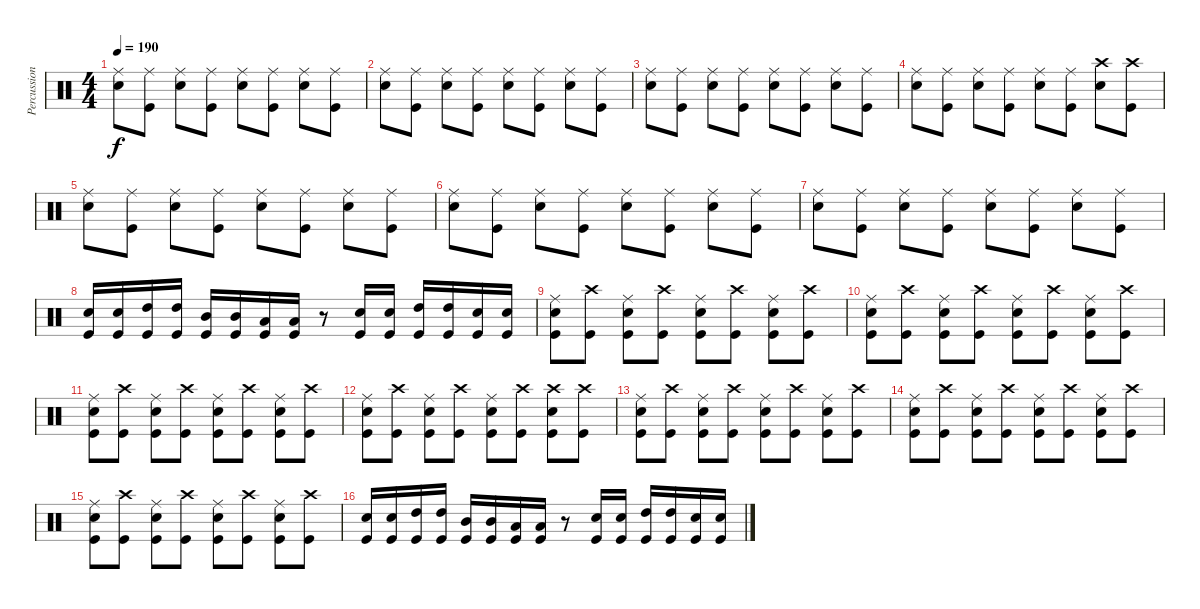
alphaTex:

\track ("Percussioni" "Percussion") {instrument percussion}
\staff {score}
\articulation defaults
\ts (4 4)
\tempo 190
\clef neutral
\ks c
("Ride (middle)" "Electric Snare (hit)").8{dy f} ("Ride (middle)" "Kick (hit)").8 ("Ride (middle)" "Electric Snare (hit)").8 ("Ride (middle)" "Kick (hit)").8 ("Ride (middle)" "Electric Snare (hit)").8 ("Ride (middle)" "Kick (hit)").8 ("Ride (middle)" "Electric Snare (hit)").8 ("Ride (middle)" "Kick (hit)").8 |
("Ride (middle)" "Electric Snare (hit)").8 ("Ride (middle)" "Kick (hit)").8 ("Ride (middle)" "Electric Snare (hit)").8 ("Ride (middle)" "Kick (hit)").8 ("Ride (middle)" "Electric Snare (hit)").8 ("Ride (middle)" "Kick (hit)").8 ("Ride (middle)" "Electric Snare (hit)").8 ("Ride (middle)" "Kick (hit)").8 |
("Ride (middle)" "Electric Snare (hit)").8 ("Ride (middle)" "Kick (hit)").8 ("Ride (middle)" "Electric Snare (hit)").8 ("Ride (middle)" "Kick (hit)").8 ("Ride (middle)" "Electric Snare (hit)").8 ("Ride (middle)" "Kick (hit)").8 ("Ride (middle)" "Electric Snare (hit)").8 ("Ride (middle)" "Kick (hit)").8 |
("Ride (middle)" "Electric Snare (hit)").8 ("Ride (middle)" "Kick (hit)").8 ("Ride (middle)" "Electric Snare (hit)").8 ("Ride (middle)" "Kick (hit)").8 ("Ride (middle)" "Electric Snare (hit)").8 ("Ride (middle)" "Kick (hit)").8 ("Crash high (hit)" "Electric Snare (hit)").8 ("Crash high (hit)" "Kick (hit)").8 |
("Ride (middle)" "Electric Snare (hit)").8 ("Ride (middle)" "Kick (hit)").8 ("Ride (middle)" "Electric Snare (hit)").8 ("Ride (middle)" "Kick (hit)").8 ("Ride (middle)" "Electric Snare (hit)").8 ("Ride (middle)" "Kick (hit)").8 ("Ride (middle)" "Electric Snare (hit)").8 ("Ride (middle)" "Kick (hit)").8 |
("Ride (middle)" "Electric Snare (hit)").8 ("Ride (middle)" "Kick (hit)").8 ("Ride (middle)" "Electric Snare (hit)").8 ("Ride (middle)" "Kick (hit)").8 ("Ride (middle)" "Electric Snare (hit)").8 ("Ride (middle)" "Kick (hit)").8 ("Ride (middle)" "Electric Snare (hit)").8 ("Ride (middle)" "Kick (hit)").8 |
("Ride (middle)" "Electric Snare (hit)").8 ("Ride (middle)" "Kick (hit)").8 ("Ride (middle)" "Electric Snare (hit)").8 ("Ride (middle)" "Kick (hit)").8 ("Ride (middle)" "Electric Snare (hit)").8 ("Ride (middle)" "Kick (hit)").8 ("Ride (middle)" "Electric Snare (hit)").8 ("Ride (middle)" "Kick (hit)").8 |
("Electric Snare (hit)" "Kick (hit)").16 ("Electric Snare (hit)" "Kick (hit)").16 ("High Tom (hit)" "Kick (hit)").16 ("High Tom (hit)" "Kick (hit)").16 ("Mid Tom (hit)" "Kick (hit)").16 ("Mid Tom (hit)" "Kick (hit)").16 ("Low Tom (hit)" "Kick (hit)").16 ("Low Tom (hit)" "Kick (hit)").16 r.8 ("Electric Snare (hit)" "Kick (hit)").16 ("Electric Snare (hit)" "Kick (hit)").16 ("High Tom (hit)" "Kick (hit)").16 ("High Tom (hit)" "Kick (hit)").16 ("Snare (hit) 2" "Kick (hit)").16 ("Snare (hit) 2" "Kick (hit)").16 |
("Ride (middle)" "Electric Snare (hit)" "Kick (hit)").8 ("Crash high (hit)" "Kick (hit)").8 ("Ride (middle)" "Electric Snare (hit)" "Kick (hit)").8 ("Crash high (hit)" "Kick (hit)").8 ("Ride (middle)" "Electric Snare (hit)" "Kick (hit)").8 ("Crash high (hit)" "Kick (hit)").8 ("Ride (middle)" "Electric Snare (hit)" "Kick (hit)").8 ("Crash high (hit)" "Kick (hit)").8 |
("Ride (middle)" "Electric Snare (hit)" "Kick (hit)").8 ("Crash high (hit)" "Kick (hit)").8 ("Ride (middle)" "Electric Snare (hit)" "Kick (hit)").8 ("Crash high (hit)" "Kick (hit)").8 ("Ride (middle)" "Electric Snare (hit)" "Kick (hit)").8 ("Crash high (hit)" "Kick (hit)").8 ("Ride (middle)" "Electric Snare (hit)" "Kick (hit)").8 ("Crash high (hit)" "Kick (hit)").8 |
("Ride (middle)" "Electric Snare (hit)" "Kick (hit)").8 ("Crash high (hit)" "Kick (hit)").8 ("Ride (middle)" "Electric Snare (hit)" "Kick (hit)").8 ("Crash high (hit)" "Kick (hit)").8 ("Ride (middle)" "Electric Snare (hit)" "Kick (hit)").8 ("Crash high (hit)" "Kick (hit)").8 ("Ride (middle)" "Electric Snare (hit)" "Kick (hit)").8 ("Crash high (hit)" "Kick (hit)").8 |
("Ride (middle)" "Electric Snare (hit)" "Kick (hit)").8 ("Crash high (hit)" "Kick (hit)").8 ("Ride (middle)" "Electric Snare (hit)" "Kick (hit)").8 ("Crash high (hit)" "Kick (hit)").8 ("Ride (middle)" "Electric Snare (hit)" "Kick (hit)").8 ("Crash high (hit)" "Kick (hit)").8 ("Crash high (hit)" "Electric Snare (hit)" "Kick (hit)").8 ("Crash high (hit)" "Kick (hit)").8 |
("Ride (middle)" "Electric Snare (hit)" "Kick (hit)").8 ("Crash high (hit)" "Kick (hit)").8 ("Ride (middle)" "Electric Snare (hit)" "Kick (hit)").8 ("Crash high (hit)" "Kick (hit)").8 ("Ride (middle)" "Electric Snare (hit)" "Kick (hit)").8 ("Crash high (hit)" "Kick (hit)").8 ("Ride (middle)" "Electric Snare (hit)" "Kick (hit)").8 ("Crash high (hit)" "Kick (hit)").8 |
("Ride (middle)" "Electric Snare (hit)" "Kick (hit)").8 ("Crash high (hit)" "Kick (hit)").8 ("Ride (middle)" "Electric Snare (hit)" "Kick (hit)").8 ("Crash high (hit)" "Kick (hit)").8 ("Ride (middle)" "Electric Snare (hit)" "Kick (hit)").8 ("Crash high (hit)" "Kick (hit)").8 ("Ride (middle)" "Electric Snare (hit)" "Kick (hit)").8 ("Crash high (hit)" "Kick (hit)").8 |
("Ride (middle)" "Electric Snare (hit)" "Kick (hit)").8 ("Crash high (hit)" "Kick (hit)").8 ("Ride (middle)" "Electric Snare (hit)" "Kick (hit)").8 ("Crash high (hit)" "Kick (hit)").8 ("Ride (middle)" "Electric Snare (hit)" "Kick (hit)").8 ("Crash high (hit)" "Kick (hit)").8 ("Ride (middle)" "Electric Snare (hit)" "Kick (hit)").8 ("Crash high (hit)" "Kick (hit)").8 |
("Electric Snare (hit)" "Kick (hit)").16 ("Electric Snare (hit)" "Kick (hit)").16 ("High Tom (hit)" "Kick (hit)").16 ("High Tom (hit)" "Kick (hit)").16 ("Mid Tom (hit)" "Kick (hit)").16 ("Mid Tom (hit)" "Kick (hit)").16 ("Low Tom (hit)" "Kick (hit)").16 ("Low Tom (hit)" "Kick (hit)").16 r.8 ("Electric Snare (hit)" "Kick (hit)").16 ("Electric Snare (hit)" "Kick (hit)").16 ("High Tom (hit)" "Kick (hit)").16 ("High Tom (hit)" "Kick (hit)").16 ("Snare (hit) 2" "Kick (hit)").16 ("Snare (hit) 2" "Kick (hit)").16
